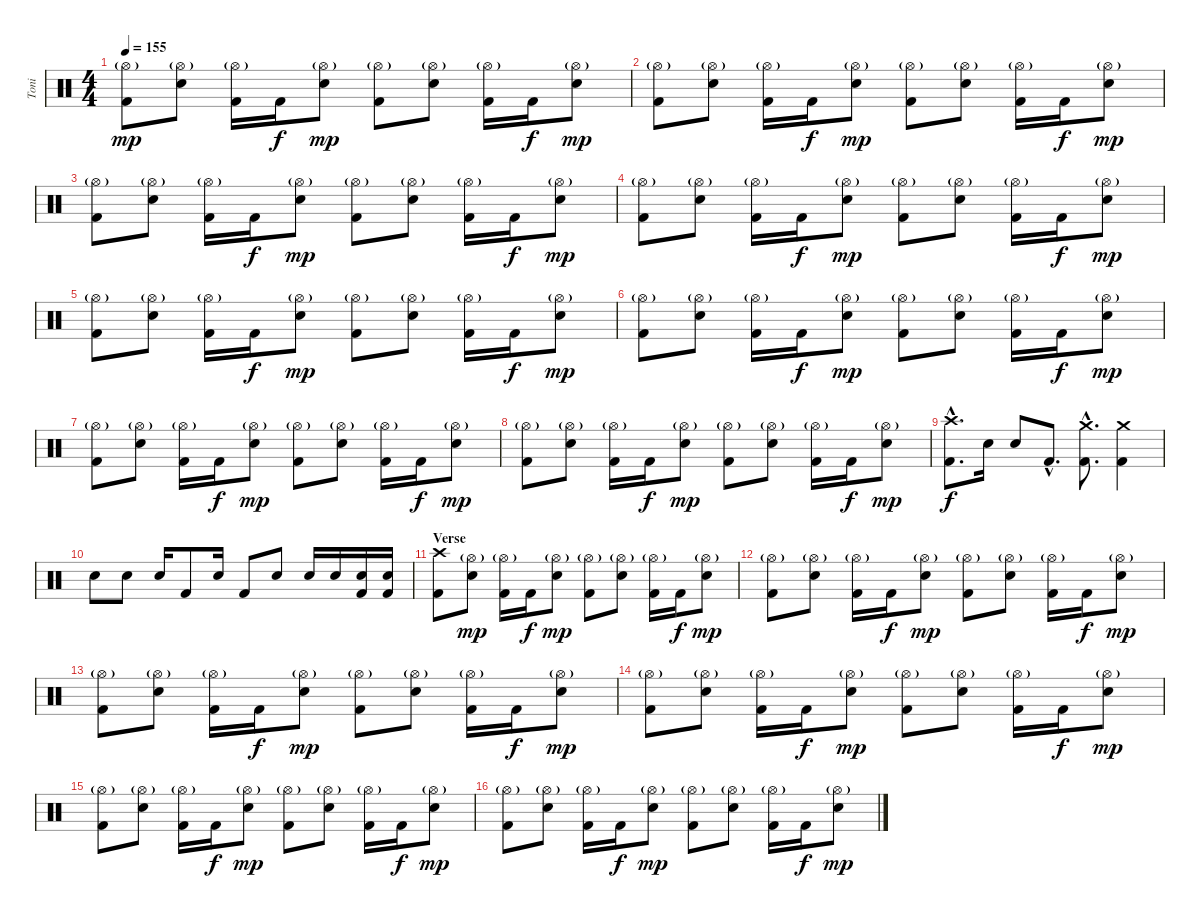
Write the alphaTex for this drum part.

\track ("Toni" "Toni") {instrument percussion}
\staff {score}
\articulation defaults
\ts (4 4)
\tempo 155
\clef neutral
\ks c
("Hi-Hat (open)"{g} "Kick (hit) 2").8{dy mp} ("Hi-Hat (open)"{g} "Electric Snare (hit)").8 ("Hi-Hat (open)"{g} "Kick (hit) 2").16 "Kick (hit) 2".16{dy f} ("Hi-Hat (open)"{g} "Electric Snare (hit)").8{dy mp} ("Hi-Hat (open)"{g} "Kick (hit) 2").8 ("Hi-Hat (open)"{g} "Electric Snare (hit)").8 ("Hi-Hat (open)"{g} "Kick (hit) 2").16 "Kick (hit) 2".16{dy f} ("Hi-Hat (open)"{g} "Electric Snare (hit)").8{dy mp} |
("Hi-Hat (open)"{g} "Kick (hit) 2").8 ("Hi-Hat (open)"{g} "Electric Snare (hit)").8 ("Hi-Hat (open)"{g} "Kick (hit) 2").16 "Kick (hit) 2".16{dy f} ("Hi-Hat (open)"{g} "Electric Snare (hit)").8{dy mp} ("Hi-Hat (open)"{g} "Kick (hit) 2").8 ("Hi-Hat (open)"{g} "Electric Snare (hit)").8 ("Hi-Hat (open)"{g} "Kick (hit) 2").16 "Kick (hit) 2".16{dy f} ("Hi-Hat (open)"{g} "Electric Snare (hit)").8{dy mp} |
("Hi-Hat (open)"{g} "Kick (hit) 2").8 ("Hi-Hat (open)"{g} "Electric Snare (hit)").8 ("Hi-Hat (open)"{g} "Kick (hit) 2").16 "Kick (hit) 2".16{dy f} ("Hi-Hat (open)"{g} "Electric Snare (hit)").8{dy mp} ("Hi-Hat (open)"{g} "Kick (hit) 2").8 ("Hi-Hat (open)"{g} "Electric Snare (hit)").8 ("Hi-Hat (open)"{g} "Kick (hit) 2").16 "Kick (hit) 2".16{dy f} ("Hi-Hat (open)"{g} "Electric Snare (hit)").8{dy mp} |
("Hi-Hat (open)"{g} "Kick (hit) 2").8 ("Hi-Hat (open)"{g} "Electric Snare (hit)").8 ("Hi-Hat (open)"{g} "Kick (hit) 2").16 "Kick (hit) 2".16{dy f} ("Hi-Hat (open)"{g} "Electric Snare (hit)").8{dy mp} ("Hi-Hat (open)"{g} "Kick (hit) 2").8 ("Hi-Hat (open)"{g} "Electric Snare (hit)").8 ("Hi-Hat (open)"{g} "Kick (hit) 2").16 "Kick (hit) 2".16{dy f} ("Hi-Hat (open)"{g} "Electric Snare (hit)").8{dy mp} |
("Hi-Hat (open)"{g} "Kick (hit) 2").8 ("Hi-Hat (open)"{g} "Electric Snare (hit)").8 ("Hi-Hat (open)"{g} "Kick (hit) 2").16 "Kick (hit) 2".16{dy f} ("Hi-Hat (open)"{g} "Electric Snare (hit)").8{dy mp} ("Hi-Hat (open)"{g} "Kick (hit) 2").8 ("Hi-Hat (open)"{g} "Electric Snare (hit)").8 ("Hi-Hat (open)"{g} "Kick (hit) 2").16 "Kick (hit) 2".16{dy f} ("Hi-Hat (open)"{g} "Electric Snare (hit)").8{dy mp} |
("Hi-Hat (open)"{g} "Kick (hit) 2").8 ("Hi-Hat (open)"{g} "Electric Snare (hit)").8 ("Hi-Hat (open)"{g} "Kick (hit) 2").16 "Kick (hit) 2".16{dy f} ("Hi-Hat (open)"{g} "Electric Snare (hit)").8{dy mp} ("Hi-Hat (open)"{g} "Kick (hit) 2").8 ("Hi-Hat (open)"{g} "Electric Snare (hit)").8 ("Hi-Hat (open)"{g} "Kick (hit) 2").16 "Kick (hit) 2".16{dy f} ("Hi-Hat (open)"{g} "Electric Snare (hit)").8{dy mp} |
("Hi-Hat (open)"{g} "Kick (hit) 2").8 ("Hi-Hat (open)"{g} "Electric Snare (hit)").8 ("Hi-Hat (open)"{g} "Kick (hit) 2").16 "Kick (hit) 2".16{dy f} ("Hi-Hat (open)"{g} "Electric Snare (hit)").8{dy mp} ("Hi-Hat (open)"{g} "Kick (hit) 2").8 ("Hi-Hat (open)"{g} "Electric Snare (hit)").8 ("Hi-Hat (open)"{g} "Kick (hit) 2").16 "Kick (hit) 2".16{dy f} ("Hi-Hat (open)"{g} "Electric Snare (hit)").8{dy mp} |
("Hi-Hat (open)"{g} "Kick (hit) 2").8 ("Hi-Hat (open)"{g} "Electric Snare (hit)").8 ("Hi-Hat (open)"{g} "Kick (hit) 2").16 "Kick (hit) 2".16{dy f} ("Hi-Hat (open)"{g} "Electric Snare (hit)").8{dy mp} ("Hi-Hat (open)"{g} "Kick (hit) 2").8 ("Hi-Hat (open)"{g} "Electric Snare (hit)").8 ("Hi-Hat (open)"{g} "Kick (hit) 2").16 "Kick (hit) 2".16{dy f} ("Hi-Hat (open)"{g} "Electric Snare (hit)").8{dy mp} |
("Crash high (hit)"{hac} "Kick (hit) 2"{hac}).8{d dy f} "Electric Snare (hit)".16 "Electric Snare (hit)".8 "Kick (hit) 2"{hac}.8{d} ("Crash medium (hit)"{hac} "Kick (hit) 2"{hac}).8{d} ("Crash medium (hit)" "Kick (hit) 2").4 |
"Electric Snare (hit)".8 "Electric Snare (hit)".8 "Electric Snare (hit)".16 "Kick (hit) 2".8 "Electric Snare (hit)".16 "Kick (hit) 2".8 "Electric Snare (hit)".8 "Electric Snare (hit)".16 "Electric Snare (hit)".16 ("Electric Snare (hit)" "Kick (hit) 2").16 ("Electric Snare (hit)" "Kick (hit) 2").16 |
\section ("" "Verse")
("Crash high (hit)" "Kick (hit) 2").8 ("Hi-Hat (open)"{g} "Electric Snare (hit)").8{dy mp} ("Hi-Hat (open)"{g} "Kick (hit) 2").16 "Kick (hit) 2".16{dy f} ("Hi-Hat (open)"{g} "Electric Snare (hit)").8{dy mp} ("Hi-Hat (open)"{g} "Kick (hit) 2").8 ("Hi-Hat (open)"{g} "Electric Snare (hit)").8 ("Hi-Hat (open)"{g} "Kick (hit) 2").16 "Kick (hit) 2".16{dy f} ("Hi-Hat (open)"{g} "Electric Snare (hit)").8{dy mp} |
("Hi-Hat (open)"{g} "Kick (hit) 2").8 ("Hi-Hat (open)"{g} "Electric Snare (hit)").8 ("Hi-Hat (open)"{g} "Kick (hit) 2").16 "Kick (hit) 2".16{dy f} ("Hi-Hat (open)"{g} "Electric Snare (hit)").8{dy mp} ("Hi-Hat (open)"{g} "Kick (hit) 2").8 ("Hi-Hat (open)"{g} "Electric Snare (hit)").8 ("Hi-Hat (open)"{g} "Kick (hit) 2").16 "Kick (hit) 2".16{dy f} ("Hi-Hat (open)"{g} "Electric Snare (hit)").8{dy mp} |
("Hi-Hat (open)"{g} "Kick (hit) 2").8 ("Hi-Hat (open)"{g} "Electric Snare (hit)").8 ("Hi-Hat (open)"{g} "Kick (hit) 2").16 "Kick (hit) 2".16{dy f} ("Hi-Hat (open)"{g} "Electric Snare (hit)").8{dy mp} ("Hi-Hat (open)"{g} "Kick (hit) 2").8 ("Hi-Hat (open)"{g} "Electric Snare (hit)").8 ("Hi-Hat (open)"{g} "Kick (hit) 2").16 "Kick (hit) 2".16{dy f} ("Hi-Hat (open)"{g} "Electric Snare (hit)").8{dy mp} |
("Hi-Hat (open)"{g} "Kick (hit) 2").8 ("Hi-Hat (open)"{g} "Electric Snare (hit)").8 ("Hi-Hat (open)"{g} "Kick (hit) 2").16 "Kick (hit) 2".16{dy f} ("Hi-Hat (open)"{g} "Electric Snare (hit)").8{dy mp} ("Hi-Hat (open)"{g} "Kick (hit) 2").8 ("Hi-Hat (open)"{g} "Electric Snare (hit)").8 ("Hi-Hat (open)"{g} "Kick (hit) 2").16 "Kick (hit) 2".16{dy f} ("Hi-Hat (open)"{g} "Electric Snare (hit)").8{dy mp} |
("Hi-Hat (open)"{g} "Kick (hit) 2").8 ("Hi-Hat (open)"{g} "Electric Snare (hit)").8 ("Hi-Hat (open)"{g} "Kick (hit) 2").16 "Kick (hit) 2".16{dy f} ("Hi-Hat (open)"{g} "Electric Snare (hit)").8{dy mp} ("Hi-Hat (open)"{g} "Kick (hit) 2").8 ("Hi-Hat (open)"{g} "Electric Snare (hit)").8 ("Hi-Hat (open)"{g} "Kick (hit) 2").16 "Kick (hit) 2".16{dy f} ("Hi-Hat (open)"{g} "Electric Snare (hit)").8{dy mp} |
("Hi-Hat (open)"{g} "Kick (hit) 2").8 ("Hi-Hat (open)"{g} "Electric Snare (hit)").8 ("Hi-Hat (open)"{g} "Kick (hit) 2").16 "Kick (hit) 2".16{dy f} ("Hi-Hat (open)"{g} "Electric Snare (hit)").8{dy mp} ("Hi-Hat (open)"{g} "Kick (hit) 2").8 ("Hi-Hat (open)"{g} "Electric Snare (hit)").8 ("Hi-Hat (open)"{g} "Kick (hit) 2").16 "Kick (hit) 2".16{dy f} ("Hi-Hat (open)"{g} "Electric Snare (hit)").8{dy mp}
